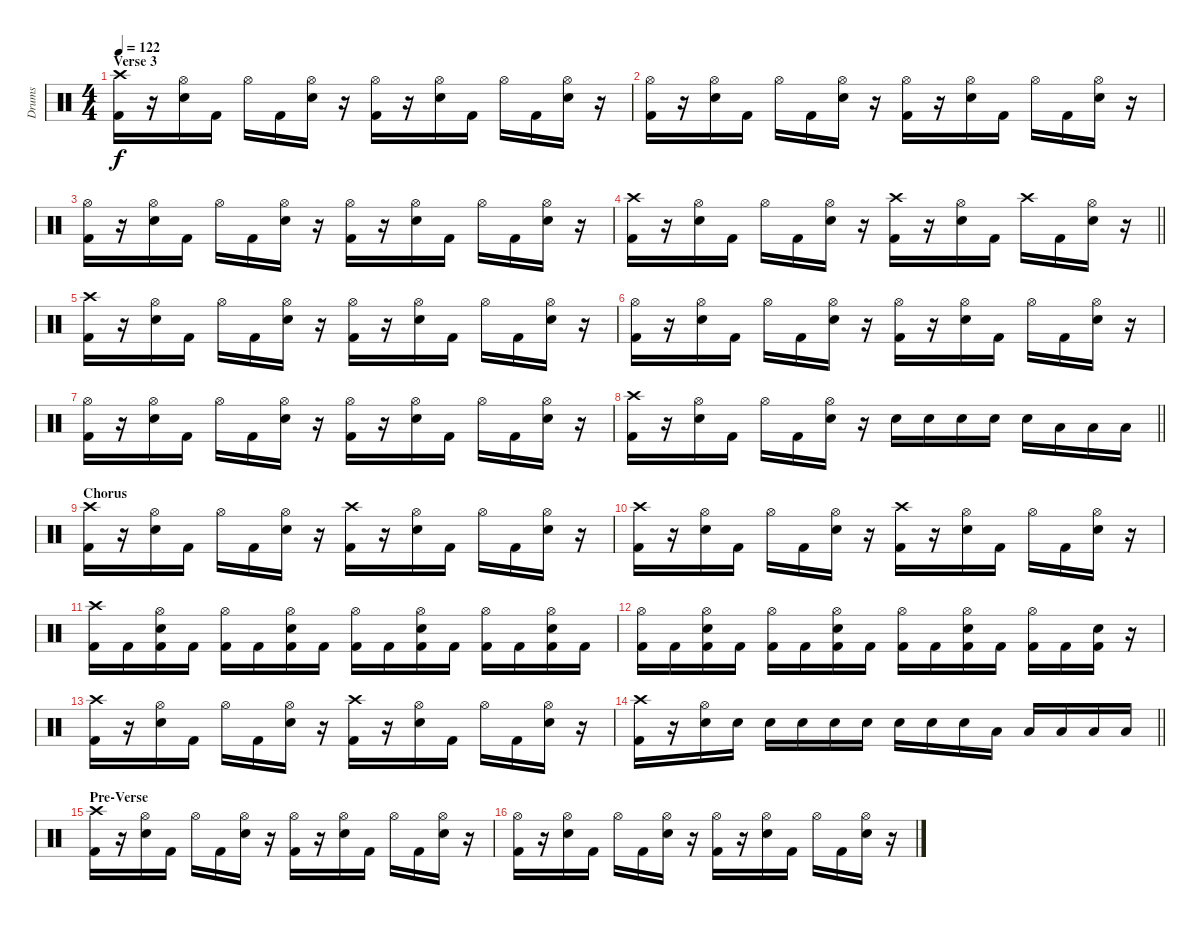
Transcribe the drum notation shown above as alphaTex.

\track ("Drums" "Drums") {instrument percussion}
\staff {score}
\articulation defaults
\ts (4 4)
\section ("" "Verse 3")
\tempo 122
\clef neutral
\ks c
("Crash high (hit)" "Kick (hit) 2").16{dy f} r.16 ("Hi-Hat (open)" "Snare (hit) 2").16 "Kick (hit) 2".16 "Hi-Hat (open)".16 "Kick (hit) 2".16 ("Hi-Hat (open)" "Snare (hit) 2").16 r.16 ("Hi-Hat (open)" "Kick (hit) 2").16 r.16 ("Hi-Hat (open)" "Snare (hit) 2").16 "Kick (hit) 2".16 "Hi-Hat (open)".16 "Kick (hit) 2".16 ("Hi-Hat (open)" "Snare (hit) 2").16 r.16 |
("Hi-Hat (open)" "Kick (hit) 2").16 r.16 ("Hi-Hat (open)" "Snare (hit) 2").16 "Kick (hit) 2".16 "Hi-Hat (open)".16 "Kick (hit) 2".16 ("Hi-Hat (open)" "Snare (hit) 2").16 r.16 ("Hi-Hat (open)" "Kick (hit) 2").16 r.16 ("Hi-Hat (open)" "Snare (hit) 2").16 "Kick (hit) 2".16 "Hi-Hat (open)".16 "Kick (hit) 2".16 ("Hi-Hat (open)" "Snare (hit) 2").16 r.16 |
("Hi-Hat (open)" "Kick (hit) 2").16 r.16 ("Hi-Hat (open)" "Snare (hit) 2").16 "Kick (hit) 2".16 "Hi-Hat (open)".16 "Kick (hit) 2".16 ("Hi-Hat (open)" "Snare (hit) 2").16 r.16 ("Hi-Hat (open)" "Kick (hit) 2").16 r.16 ("Hi-Hat (open)" "Snare (hit) 2").16 "Kick (hit) 2".16 "Hi-Hat (open)".16 "Kick (hit) 2".16 ("Hi-Hat (open)" "Snare (hit) 2").16 r.16 |
\barLineRight lightlight
("Crash high (hit)" "Kick (hit) 2").16 r.16 ("Hi-Hat (open)" "Snare (hit) 2").16 "Kick (hit) 2".16 "Hi-Hat (open)".16 "Kick (hit) 2".16 ("Hi-Hat (open)" "Snare (hit) 2").16 r.16 ("Crash high (hit)" "Kick (hit) 2").16 r.16 ("Hi-Hat (open)" "Snare (hit) 2").16 "Kick (hit) 2".16 "Crash high (hit)".16 "Kick (hit) 2".16 ("Hi-Hat (open)" "Snare (hit) 2").16 r.16 |
("Crash high (hit)" "Kick (hit) 2").16 r.16 ("Hi-Hat (open)" "Snare (hit) 2").16 "Kick (hit) 2".16 "Hi-Hat (open)".16 "Kick (hit) 2".16 ("Hi-Hat (open)" "Snare (hit) 2").16 r.16 ("Hi-Hat (open)" "Kick (hit) 2").16 r.16 ("Hi-Hat (open)" "Snare (hit) 2").16 "Kick (hit) 2".16 "Hi-Hat (open)".16 "Kick (hit) 2".16 ("Hi-Hat (open)" "Snare (hit) 2").16 r.16 |
("Hi-Hat (open)" "Kick (hit) 2").16 r.16 ("Hi-Hat (open)" "Snare (hit) 2").16 "Kick (hit) 2".16 "Hi-Hat (open)".16 "Kick (hit) 2".16 ("Hi-Hat (open)" "Snare (hit) 2").16 r.16 ("Hi-Hat (open)" "Kick (hit) 2").16 r.16 ("Hi-Hat (open)" "Snare (hit) 2").16 "Kick (hit) 2".16 "Hi-Hat (open)".16 "Kick (hit) 2".16 ("Hi-Hat (open)" "Snare (hit) 2").16 r.16 |
("Hi-Hat (open)" "Kick (hit) 2").16 r.16 ("Hi-Hat (open)" "Snare (hit) 2").16 "Kick (hit) 2".16 "Hi-Hat (open)".16 "Kick (hit) 2".16 ("Hi-Hat (open)" "Snare (hit) 2").16 r.16 ("Hi-Hat (open)" "Kick (hit) 2").16 r.16 ("Hi-Hat (open)" "Snare (hit) 2").16 "Kick (hit) 2".16 "Hi-Hat (open)".16 "Kick (hit) 2".16 ("Hi-Hat (open)" "Snare (hit) 2").16 r.16 |
\barLineRight lightlight
("Crash high (hit)" "Kick (hit) 2").16 r.16 ("Hi-Hat (open)" "Snare (hit) 2").16 "Kick (hit) 2".16 "Hi-Hat (open)".16 "Kick (hit) 2".16 ("Hi-Hat (open)" "Snare (hit) 2").16 r.16 "Snare (hit) 2".16 "Snare (hit) 2".16 "Snare (hit) 2".16 "Snare (hit) 2".16 "Snare (hit) 2".16 "Low Tom (hit)".16 "Low Tom (hit)".16 "Low Tom (hit)".16 |
\section ("" "Chorus")
("Crash high (hit)" "Kick (hit) 2").16 r.16 ("Hi-Hat (open)" "Snare (hit) 2").16 "Kick (hit) 2".16 "Hi-Hat (open)".16 "Kick (hit) 2".16 ("Hi-Hat (open)" "Snare (hit) 2").16 r.16 ("Crash high (hit)" "Kick (hit) 2").16 r.16 ("Hi-Hat (open)" "Snare (hit) 2").16 "Kick (hit) 2".16 "Hi-Hat (open)".16 "Kick (hit) 2".16 ("Hi-Hat (open)" "Snare (hit) 2").16 r.16 |
("Crash high (hit)" "Kick (hit) 2").16 r.16 ("Hi-Hat (open)" "Snare (hit) 2").16 "Kick (hit) 2".16 "Hi-Hat (open)".16 "Kick (hit) 2".16 ("Hi-Hat (open)" "Snare (hit) 2").16 r.16 ("Crash high (hit)" "Kick (hit) 2").16 r.16 ("Hi-Hat (open)" "Snare (hit) 2").16 "Kick (hit) 2".16 "Hi-Hat (open)".16 "Kick (hit) 2".16 ("Hi-Hat (open)" "Snare (hit) 2").16 r.16 |
("Crash high (hit)" "Kick (hit) 2").16 "Kick (hit) 2".16 ("Hi-Hat (open)" "Snare (hit) 2" "Kick (hit) 2").16 "Kick (hit) 2".16 ("Hi-Hat (open)" "Kick (hit) 2").16 "Kick (hit) 2".16 ("Hi-Hat (open)" "Snare (hit) 2" "Kick (hit) 2").16 "Kick (hit) 2".16 ("Hi-Hat (open)" "Kick (hit) 2").16 "Kick (hit) 2".16 ("Hi-Hat (open)" "Snare (hit) 2" "Kick (hit) 2").16 "Kick (hit) 2".16 ("Hi-Hat (open)" "Kick (hit) 2").16 "Kick (hit) 2".16 ("Hi-Hat (open)" "Snare (hit) 2" "Kick (hit) 2").16 "Kick (hit) 2".16 |
("Hi-Hat (open)" "Kick (hit) 2").16 "Kick (hit) 2".16 ("Hi-Hat (open)" "Snare (hit) 2" "Kick (hit) 2").16 "Kick (hit) 2".16 ("Hi-Hat (open)" "Kick (hit) 2").16 "Kick (hit) 2".16 ("Hi-Hat (open)" "Snare (hit) 2" "Kick (hit) 2").16 "Kick (hit) 2".16 ("Hi-Hat (open)" "Kick (hit) 2").16 "Kick (hit) 2".16 ("Hi-Hat (open)" "Snare (hit) 2" "Kick (hit) 2").16 "Kick (hit) 2".16 ("Hi-Hat (open)" "Kick (hit) 2").16 "Kick (hit) 2".16 ("Snare (hit) 2" "Kick (hit) 2").16 r.16 |
("Crash high (hit)" "Kick (hit) 2").16 r.16 ("Hi-Hat (open)" "Snare (hit) 2").16 "Kick (hit) 2".16 "Hi-Hat (open)".16 "Kick (hit) 2".16 ("Hi-Hat (open)" "Snare (hit) 2").16 r.16 ("Crash high (hit)" "Kick (hit) 2").16 r.16 ("Hi-Hat (open)" "Snare (hit) 2").16 "Kick (hit) 2".16 "Hi-Hat (open)".16 "Kick (hit) 2".16 ("Hi-Hat (open)" "Snare (hit) 2").16 r.16 |
\barLineRight lightlight
("Crash high (hit)" "Kick (hit) 2").16 r.16 ("Hi-Hat (open)" "Snare (hit) 2").16 "Snare (hit) 2".16 "Snare (hit) 2".16 "Snare (hit) 2".16 "Snare (hit) 2".16 "Snare (hit) 2".16 "Snare (hit) 2".16 "Snare (hit) 2".16 "Snare (hit) 2".16 "Low Tom (hit)".16 "Low Tom (hit)".16 "Low Tom (hit)".16 "Low Tom (hit)".16 "Low Tom (hit)".16 |
\section ("" "Pre-Verse")
("Crash high (hit)" "Kick (hit) 2").16 r.16 ("Hi-Hat (open)" "Snare (hit) 2").16 "Kick (hit) 2".16 "Hi-Hat (open)".16 "Kick (hit) 2".16 ("Hi-Hat (open)" "Snare (hit) 2").16 r.16 ("Hi-Hat (open)" "Kick (hit) 2").16 r.16 ("Hi-Hat (open)" "Snare (hit) 2").16 "Kick (hit) 2".16 "Hi-Hat (open)".16 "Kick (hit) 2".16 ("Hi-Hat (open)" "Snare (hit) 2").16 r.16 |
("Hi-Hat (open)" "Kick (hit) 2").16 r.16 ("Hi-Hat (open)" "Snare (hit) 2").16 "Kick (hit) 2".16 "Hi-Hat (open)".16 "Kick (hit) 2".16 ("Hi-Hat (open)" "Snare (hit) 2").16 r.16 ("Hi-Hat (open)" "Kick (hit) 2").16 r.16 ("Hi-Hat (open)" "Snare (hit) 2").16 "Kick (hit) 2".16 "Hi-Hat (open)".16 "Kick (hit) 2".16 ("Hi-Hat (open)" "Snare (hit) 2").16 r.16
